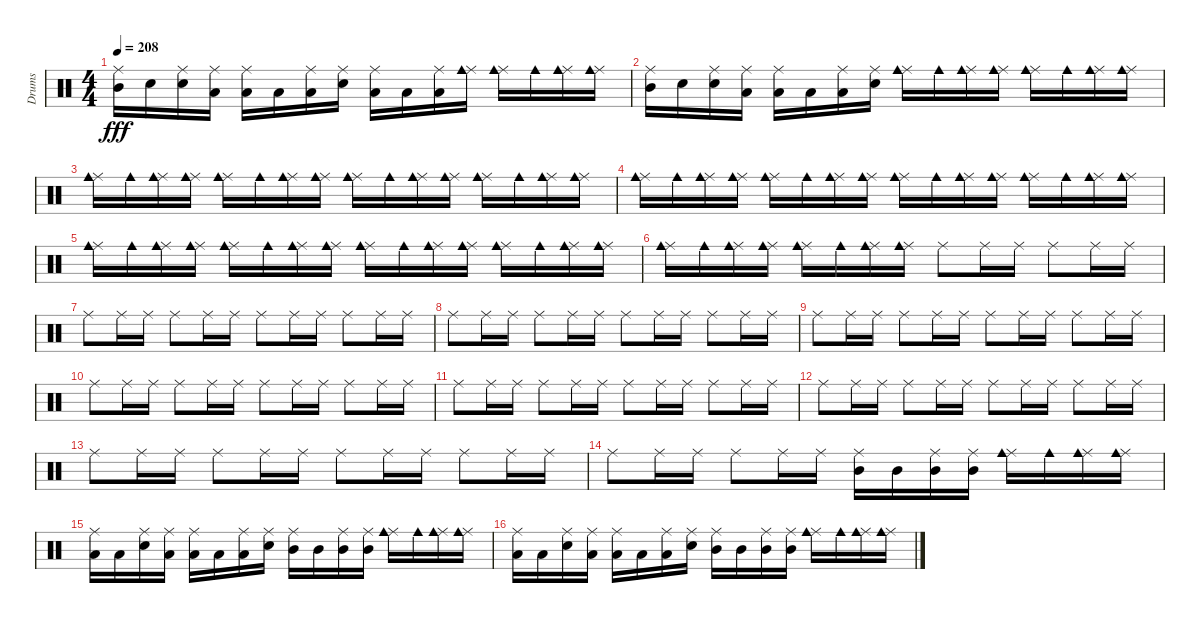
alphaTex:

\track ("Drums" "Drums") {instrument percussion}
\staff {score}
\articulation defaults
\ts (4 4)
\tempo 208
\clef neutral
\ks c
("Ride (middle)" "Mid Tom (hit)").16{dy fff} "Snare (hit) 2".16 ("Ride (middle)" "Snare (hit) 2").16 ("Ride (middle)" "Low Tom (hit)").16 ("Ride (middle)" "Low Tom (hit)").16 "Low Tom (hit)".16 ("Ride (middle)" "Low Tom (hit)").16 ("Ride (middle)" "Snare (hit) 2").16 ("Ride (middle)" "Low Tom (hit)").16 "Low Tom (hit)".16 ("Ride (middle)" "Low Tom (hit)").16 ("Ride (middle)" "Cowbell medium (hit)").16 ("Ride (middle)" "Cowbell medium (hit)").16 "Cowbell medium (hit)".16 ("Ride (middle)" "Cowbell medium (hit)").16 ("Ride (middle)" "Cowbell medium (hit)").16 |
("Ride (middle)" "Mid Tom (hit)").16 "Snare (hit) 2".16 ("Ride (middle)" "Snare (hit) 2").16 ("Ride (middle)" "Low Tom (hit)").16 ("Ride (middle)" "Low Tom (hit)").16 "Low Tom (hit)".16 ("Ride (middle)" "Low Tom (hit)").16 ("Ride (middle)" "Snare (hit) 2").16 ("Ride (middle)" "Cowbell medium (hit)").16 "Cowbell medium (hit)".16 ("Ride (middle)" "Cowbell medium (hit)").16 ("Ride (middle)" "Cowbell medium (hit)").16 ("Ride (middle)" "Cowbell medium (hit)").16 "Cowbell medium (hit)".16 ("Ride (middle)" "Cowbell medium (hit)").16 ("Ride (middle)" "Cowbell medium (hit)").16 |
("Ride (middle)" "Cowbell medium (hit)").16 "Cowbell medium (hit)".16 ("Ride (middle)" "Cowbell medium (hit)").16 ("Ride (middle)" "Cowbell medium (hit)").16 ("Ride (middle)" "Cowbell medium (hit)").16 "Cowbell medium (hit)".16 ("Ride (middle)" "Cowbell medium (hit)").16 ("Ride (middle)" "Cowbell medium (hit)").16 ("Ride (middle)" "Cowbell medium (hit)").16 "Cowbell medium (hit)".16 ("Ride (middle)" "Cowbell medium (hit)").16 ("Ride (middle)" "Cowbell medium (hit)").16 ("Ride (middle)" "Cowbell medium (hit)").16 "Cowbell medium (hit)".16 ("Ride (middle)" "Cowbell medium (hit)").16 ("Ride (middle)" "Cowbell medium (hit)").16 |
("Ride (middle)" "Cowbell medium (hit)").16 "Cowbell medium (hit)".16 ("Ride (middle)" "Cowbell medium (hit)").16 ("Ride (middle)" "Cowbell medium (hit)").16 ("Ride (middle)" "Cowbell medium (hit)").16 "Cowbell medium (hit)".16 ("Ride (middle)" "Cowbell medium (hit)").16 ("Ride (middle)" "Cowbell medium (hit)").16 ("Ride (middle)" "Cowbell medium (hit)").16 "Cowbell medium (hit)".16 ("Ride (middle)" "Cowbell medium (hit)").16 ("Ride (middle)" "Cowbell medium (hit)").16 ("Ride (middle)" "Cowbell medium (hit)").16 "Cowbell medium (hit)".16 ("Ride (middle)" "Cowbell medium (hit)").16 ("Ride (middle)" "Cowbell medium (hit)").16 |
("Ride (middle)" "Cowbell medium (hit)").16 "Cowbell medium (hit)".16 ("Ride (middle)" "Cowbell medium (hit)").16 ("Ride (middle)" "Cowbell medium (hit)").16 ("Ride (middle)" "Cowbell medium (hit)").16 "Cowbell medium (hit)".16 ("Ride (middle)" "Cowbell medium (hit)").16 ("Ride (middle)" "Cowbell medium (hit)").16 ("Ride (middle)" "Cowbell medium (hit)").16 "Cowbell medium (hit)".16 ("Ride (middle)" "Cowbell medium (hit)").16 ("Ride (middle)" "Cowbell medium (hit)").16 ("Ride (middle)" "Cowbell medium (hit)").16 "Cowbell medium (hit)".16 ("Ride (middle)" "Cowbell medium (hit)").16 ("Ride (middle)" "Cowbell medium (hit)").16 |
("Ride (middle)" "Cowbell medium (hit)").16 "Cowbell medium (hit)".16 ("Ride (middle)" "Cowbell medium (hit)").16 ("Ride (middle)" "Cowbell medium (hit)").16 ("Ride (middle)" "Cowbell medium (hit)").16 "Cowbell medium (hit)".16 ("Ride (middle)" "Cowbell medium (hit)").16 ("Ride (middle)" "Cowbell medium (hit)").16 "Ride (middle)".8 "Ride (middle)".16 "Ride (middle)".16 "Ride (middle)".8 "Ride (middle)".16 "Ride (middle)".16 |
"Ride (middle)".8 "Ride (middle)".16 "Ride (middle)".16 "Ride (middle)".8 "Ride (middle)".16 "Ride (middle)".16 "Ride (middle)".8 "Ride (middle)".16 "Ride (middle)".16 "Ride (middle)".8 "Ride (middle)".16 "Ride (middle)".16 |
"Ride (middle)".8 "Ride (middle)".16 "Ride (middle)".16 "Ride (middle)".8 "Ride (middle)".16 "Ride (middle)".16 "Ride (middle)".8 "Ride (middle)".16 "Ride (middle)".16 "Ride (middle)".8 "Ride (middle)".16 "Ride (middle)".16 |
"Ride (middle)".8 "Ride (middle)".16 "Ride (middle)".16 "Ride (middle)".8 "Ride (middle)".16 "Ride (middle)".16 "Ride (middle)".8 "Ride (middle)".16 "Ride (middle)".16 "Ride (middle)".8 "Ride (middle)".16 "Ride (middle)".16 |
"Ride (middle)".8 "Ride (middle)".16 "Ride (middle)".16 "Ride (middle)".8 "Ride (middle)".16 "Ride (middle)".16 "Ride (middle)".8 "Ride (middle)".16 "Ride (middle)".16 "Ride (middle)".8 "Ride (middle)".16 "Ride (middle)".16 |
"Ride (middle)".8 "Ride (middle)".16 "Ride (middle)".16 "Ride (middle)".8 "Ride (middle)".16 "Ride (middle)".16 "Ride (middle)".8 "Ride (middle)".16 "Ride (middle)".16 "Ride (middle)".8 "Ride (middle)".16 "Ride (middle)".16 |
"Ride (middle)".8 "Ride (middle)".16 "Ride (middle)".16 "Ride (middle)".8 "Ride (middle)".16 "Ride (middle)".16 "Ride (middle)".8 "Ride (middle)".16 "Ride (middle)".16 "Ride (middle)".8 "Ride (middle)".16 "Ride (middle)".16 |
"Ride (middle)".8 "Ride (middle)".16 "Ride (middle)".16 "Ride (middle)".8 "Ride (middle)".16 "Ride (middle)".16 "Ride (middle)".8 "Ride (middle)".16 "Ride (middle)".16 "Ride (middle)".8 "Ride (middle)".16 "Ride (middle)".16 |
"Ride (middle)".8 "Ride (middle)".16 "Ride (middle)".16 "Ride (middle)".8 "Ride (middle)".16 "Ride (middle)".16 ("Ride (middle)" "Mid Tom (hit)").16 "Mid Tom (hit)".16 ("Ride (middle)" "Mid Tom (hit)").16 ("Ride (middle)" "Mid Tom (hit)").16 ("Ride (middle)" "Cowbell medium (hit)").16 "Cowbell medium (hit)".16 ("Ride (middle)" "Cowbell medium (hit)").16 ("Ride (middle)" "Cowbell medium (hit)").16 |
("Ride (middle)" "Low Tom (hit)").16 "Low Tom (hit)".16 ("Ride (middle)" "Snare (hit) 2").16 ("Ride (middle)" "Low Tom (hit)").16 ("Ride (middle)" "Low Tom (hit)").16 "Low Tom (hit)".16 ("Ride (middle)" "Low Tom (hit)").16 ("Ride (middle)" "Snare (hit) 2").16 ("Ride (middle)" "Mid Tom (hit)").16 "Mid Tom (hit)".16 ("Ride (middle)" "Mid Tom (hit)").16 ("Ride (middle)" "Mid Tom (hit)").16 ("Ride (middle)" "Cowbell medium (hit)").16 "Cowbell medium (hit)".16 ("Ride (middle)" "Cowbell medium (hit)").16 ("Ride (middle)" "Cowbell medium (hit)").16 |
("Ride (middle)" "Low Tom (hit)").16 "Low Tom (hit)".16 ("Ride (middle)" "Snare (hit) 2").16 ("Ride (middle)" "Low Tom (hit)").16 ("Ride (middle)" "Low Tom (hit)").16 "Low Tom (hit)".16 ("Ride (middle)" "Low Tom (hit)").16 ("Ride (middle)" "Snare (hit) 2").16 ("Ride (middle)" "Mid Tom (hit)").16 "Mid Tom (hit)".16 ("Ride (middle)" "Mid Tom (hit)").16 ("Ride (middle)" "Mid Tom (hit)").16 ("Ride (middle)" "Cowbell medium (hit)").16 "Cowbell medium (hit)".16 ("Ride (middle)" "Cowbell medium (hit)").16 ("Ride (middle)" "Cowbell medium (hit)").16
